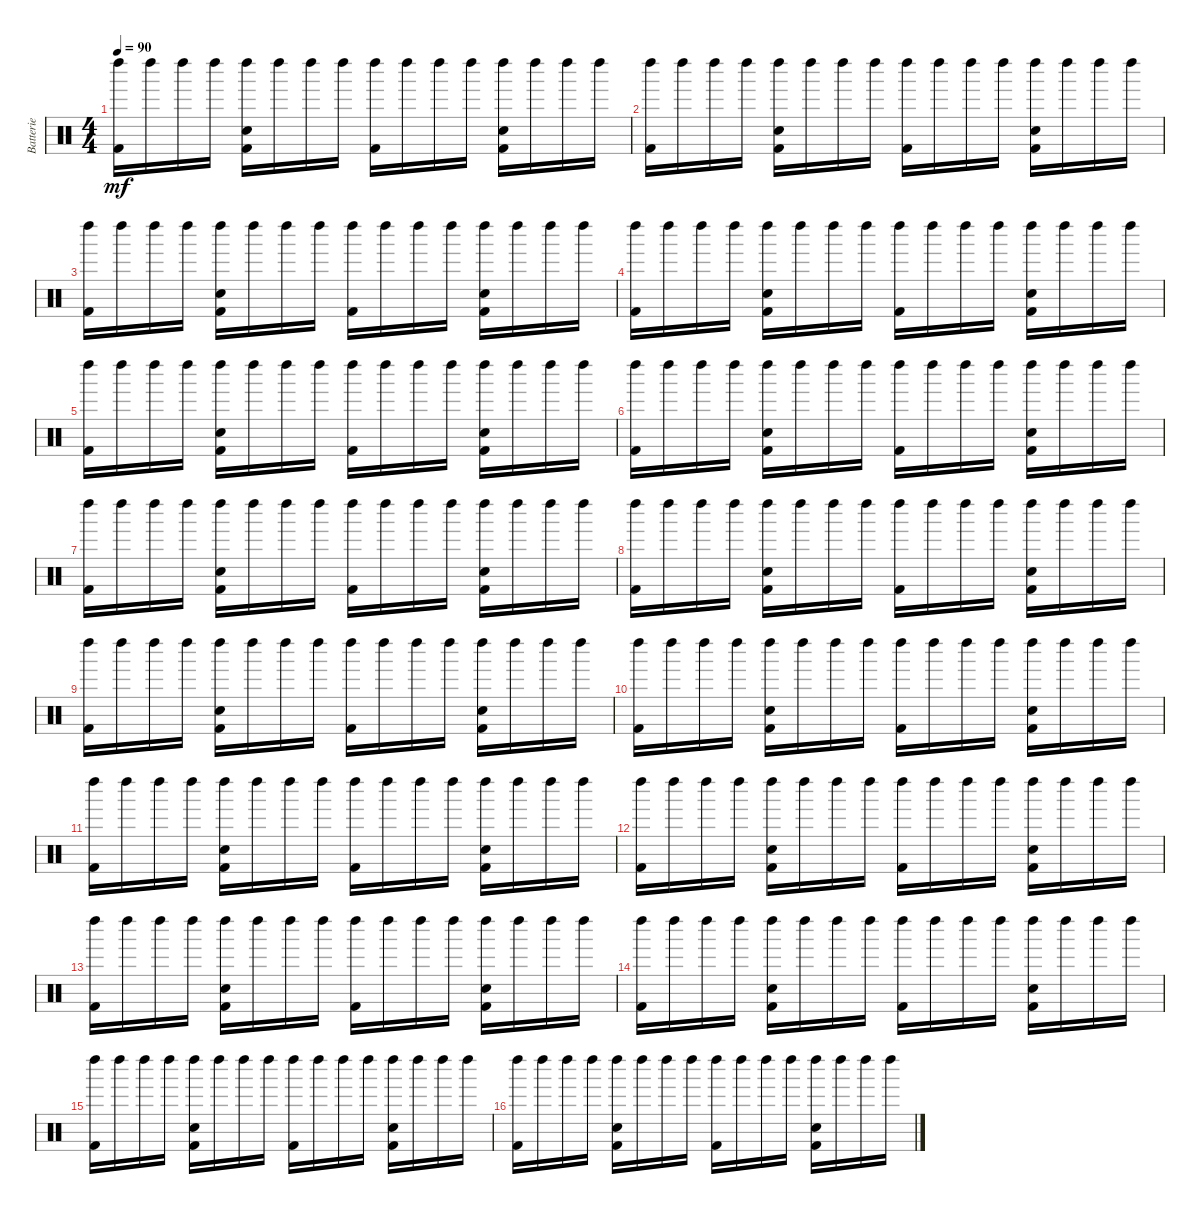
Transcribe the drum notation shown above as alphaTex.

\track ("Batterie" "Batterie") {instrument percussion}
\staff {score}
\articulation defaults
\ts (4 4)
\tempo 90
\clef neutral
\ks c
("Left Maraca (hit)" "Kick (hit) 2").16{dy mf} "Left Maraca (hit)".16 "Left Maraca (hit)".16 "Left Maraca (hit)".16 ("Left Maraca (hit)" "Snare (hit) 2" "Kick (hit) 2").16 "Left Maraca (hit)".16 "Left Maraca (hit)".16 "Left Maraca (hit)".16 ("Left Maraca (hit)" "Kick (hit) 2").16 "Left Maraca (hit)".16 "Left Maraca (hit)".16 "Left Maraca (hit)".16 ("Left Maraca (hit)" "Snare (hit) 2" "Kick (hit) 2").16 "Left Maraca (hit)".16 "Left Maraca (hit)".16 "Left Maraca (hit)".16 |
("Left Maraca (hit)" "Kick (hit) 2").16 "Left Maraca (hit)".16 "Left Maraca (hit)".16 "Left Maraca (hit)".16 ("Left Maraca (hit)" "Snare (hit) 2" "Kick (hit) 2").16 "Left Maraca (hit)".16 "Left Maraca (hit)".16 "Left Maraca (hit)".16 ("Left Maraca (hit)" "Kick (hit) 2").16 "Left Maraca (hit)".16 "Left Maraca (hit)".16 "Left Maraca (hit)".16 ("Left Maraca (hit)" "Snare (hit) 2" "Kick (hit) 2").16 "Left Maraca (hit)".16 "Left Maraca (hit)".16 "Left Maraca (hit)".16 |
("Left Maraca (hit)" "Kick (hit) 2").16 "Left Maraca (hit)".16 "Left Maraca (hit)".16 "Left Maraca (hit)".16 ("Left Maraca (hit)" "Snare (hit) 2" "Kick (hit) 2").16 "Left Maraca (hit)".16 "Left Maraca (hit)".16 "Left Maraca (hit)".16 ("Left Maraca (hit)" "Kick (hit) 2").16 "Left Maraca (hit)".16 "Left Maraca (hit)".16 "Left Maraca (hit)".16 ("Left Maraca (hit)" "Snare (hit) 2" "Kick (hit) 2").16 "Left Maraca (hit)".16 "Left Maraca (hit)".16 "Left Maraca (hit)".16 |
("Left Maraca (hit)" "Kick (hit) 2").16 "Left Maraca (hit)".16 "Left Maraca (hit)".16 "Left Maraca (hit)".16 ("Left Maraca (hit)" "Snare (hit) 2" "Kick (hit) 2").16 "Left Maraca (hit)".16 "Left Maraca (hit)".16 "Left Maraca (hit)".16 ("Left Maraca (hit)" "Kick (hit) 2").16 "Left Maraca (hit)".16 "Left Maraca (hit)".16 "Left Maraca (hit)".16 ("Left Maraca (hit)" "Snare (hit) 2" "Kick (hit) 2").16 "Left Maraca (hit)".16 "Left Maraca (hit)".16 "Left Maraca (hit)".16 |
("Left Maraca (hit)" "Kick (hit) 2").16 "Left Maraca (hit)".16 "Left Maraca (hit)".16 "Left Maraca (hit)".16 ("Left Maraca (hit)" "Snare (hit) 2" "Kick (hit) 2").16 "Left Maraca (hit)".16 "Left Maraca (hit)".16 "Left Maraca (hit)".16 ("Left Maraca (hit)" "Kick (hit) 2").16 "Left Maraca (hit)".16 "Left Maraca (hit)".16 "Left Maraca (hit)".16 ("Left Maraca (hit)" "Snare (hit) 2" "Kick (hit) 2").16 "Left Maraca (hit)".16 "Left Maraca (hit)".16 "Left Maraca (hit)".16 |
("Left Maraca (hit)" "Kick (hit) 2").16 "Left Maraca (hit)".16 "Left Maraca (hit)".16 "Left Maraca (hit)".16 ("Left Maraca (hit)" "Snare (hit) 2" "Kick (hit) 2").16 "Left Maraca (hit)".16 "Left Maraca (hit)".16 "Left Maraca (hit)".16 ("Left Maraca (hit)" "Kick (hit) 2").16 "Left Maraca (hit)".16 "Left Maraca (hit)".16 "Left Maraca (hit)".16 ("Left Maraca (hit)" "Snare (hit) 2" "Kick (hit) 2").16 "Left Maraca (hit)".16 "Left Maraca (hit)".16 "Left Maraca (hit)".16 |
("Left Maraca (hit)" "Kick (hit) 2").16 "Left Maraca (hit)".16 "Left Maraca (hit)".16 "Left Maraca (hit)".16 ("Left Maraca (hit)" "Snare (hit) 2" "Kick (hit) 2").16 "Left Maraca (hit)".16 "Left Maraca (hit)".16 "Left Maraca (hit)".16 ("Left Maraca (hit)" "Kick (hit) 2").16 "Left Maraca (hit)".16 "Left Maraca (hit)".16 "Left Maraca (hit)".16 ("Left Maraca (hit)" "Snare (hit) 2" "Kick (hit) 2").16 "Left Maraca (hit)".16 "Left Maraca (hit)".16 "Left Maraca (hit)".16 |
("Left Maraca (hit)" "Kick (hit) 2").16 "Left Maraca (hit)".16 "Left Maraca (hit)".16 "Left Maraca (hit)".16 ("Left Maraca (hit)" "Snare (hit) 2" "Kick (hit) 2").16 "Left Maraca (hit)".16 "Left Maraca (hit)".16 "Left Maraca (hit)".16 ("Left Maraca (hit)" "Kick (hit) 2").16 "Left Maraca (hit)".16 "Left Maraca (hit)".16 "Left Maraca (hit)".16 ("Left Maraca (hit)" "Snare (hit) 2" "Kick (hit) 2").16 "Left Maraca (hit)".16 "Left Maraca (hit)".16 "Left Maraca (hit)".16 |
("Left Maraca (hit)" "Kick (hit) 2").16 "Left Maraca (hit)".16 "Left Maraca (hit)".16 "Left Maraca (hit)".16 ("Left Maraca (hit)" "Snare (hit) 2" "Kick (hit) 2").16 "Left Maraca (hit)".16 "Left Maraca (hit)".16 "Left Maraca (hit)".16 ("Left Maraca (hit)" "Kick (hit) 2").16 "Left Maraca (hit)".16 "Left Maraca (hit)".16 "Left Maraca (hit)".16 ("Left Maraca (hit)" "Snare (hit) 2" "Kick (hit) 2").16 "Left Maraca (hit)".16 "Left Maraca (hit)".16 "Left Maraca (hit)".16 |
("Left Maraca (hit)" "Kick (hit) 2").16 "Left Maraca (hit)".16 "Left Maraca (hit)".16 "Left Maraca (hit)".16 ("Left Maraca (hit)" "Snare (hit) 2" "Kick (hit) 2").16 "Left Maraca (hit)".16 "Left Maraca (hit)".16 "Left Maraca (hit)".16 ("Left Maraca (hit)" "Kick (hit) 2").16 "Left Maraca (hit)".16 "Left Maraca (hit)".16 "Left Maraca (hit)".16 ("Left Maraca (hit)" "Snare (hit) 2" "Kick (hit) 2").16 "Left Maraca (hit)".16 "Left Maraca (hit)".16 "Left Maraca (hit)".16 |
("Left Maraca (hit)" "Kick (hit) 2").16 "Left Maraca (hit)".16 "Left Maraca (hit)".16 "Left Maraca (hit)".16 ("Left Maraca (hit)" "Snare (hit) 2" "Kick (hit) 2").16 "Left Maraca (hit)".16 "Left Maraca (hit)".16 "Left Maraca (hit)".16 ("Left Maraca (hit)" "Kick (hit) 2").16 "Left Maraca (hit)".16 "Left Maraca (hit)".16 "Left Maraca (hit)".16 ("Left Maraca (hit)" "Snare (hit) 2" "Kick (hit) 2").16 "Left Maraca (hit)".16 "Left Maraca (hit)".16 "Left Maraca (hit)".16 |
("Left Maraca (hit)" "Kick (hit) 2").16 "Left Maraca (hit)".16 "Left Maraca (hit)".16 "Left Maraca (hit)".16 ("Left Maraca (hit)" "Snare (hit) 2" "Kick (hit) 2").16 "Left Maraca (hit)".16 "Left Maraca (hit)".16 "Left Maraca (hit)".16 ("Left Maraca (hit)" "Kick (hit) 2").16 "Left Maraca (hit)".16 "Left Maraca (hit)".16 "Left Maraca (hit)".16 ("Left Maraca (hit)" "Snare (hit) 2" "Kick (hit) 2").16 "Left Maraca (hit)".16 "Left Maraca (hit)".16 "Left Maraca (hit)".16 |
("Left Maraca (hit)" "Kick (hit) 2").16 "Left Maraca (hit)".16 "Left Maraca (hit)".16 "Left Maraca (hit)".16 ("Left Maraca (hit)" "Snare (hit) 2" "Kick (hit) 2").16 "Left Maraca (hit)".16 "Left Maraca (hit)".16 "Left Maraca (hit)".16 ("Left Maraca (hit)" "Kick (hit) 2").16 "Left Maraca (hit)".16 "Left Maraca (hit)".16 "Left Maraca (hit)".16 ("Left Maraca (hit)" "Snare (hit) 2" "Kick (hit) 2").16 "Left Maraca (hit)".16 "Left Maraca (hit)".16 "Left Maraca (hit)".16 |
("Left Maraca (hit)" "Kick (hit) 2").16 "Left Maraca (hit)".16 "Left Maraca (hit)".16 "Left Maraca (hit)".16 ("Left Maraca (hit)" "Snare (hit) 2" "Kick (hit) 2").16 "Left Maraca (hit)".16 "Left Maraca (hit)".16 "Left Maraca (hit)".16 ("Left Maraca (hit)" "Kick (hit) 2").16 "Left Maraca (hit)".16 "Left Maraca (hit)".16 "Left Maraca (hit)".16 ("Left Maraca (hit)" "Snare (hit) 2" "Kick (hit) 2").16 "Left Maraca (hit)".16 "Left Maraca (hit)".16 "Left Maraca (hit)".16 |
("Left Maraca (hit)" "Kick (hit) 2").16 "Left Maraca (hit)".16 "Left Maraca (hit)".16 "Left Maraca (hit)".16 ("Left Maraca (hit)" "Snare (hit) 2" "Kick (hit) 2").16 "Left Maraca (hit)".16 "Left Maraca (hit)".16 "Left Maraca (hit)".16 ("Left Maraca (hit)" "Kick (hit) 2").16 "Left Maraca (hit)".16 "Left Maraca (hit)".16 "Left Maraca (hit)".16 ("Left Maraca (hit)" "Snare (hit) 2" "Kick (hit) 2").16 "Left Maraca (hit)".16 "Left Maraca (hit)".16 "Left Maraca (hit)".16 |
("Left Maraca (hit)" "Kick (hit) 2").16 "Left Maraca (hit)".16 "Left Maraca (hit)".16 "Left Maraca (hit)".16 ("Left Maraca (hit)" "Snare (hit) 2" "Kick (hit) 2").16 "Left Maraca (hit)".16 "Left Maraca (hit)".16 "Left Maraca (hit)".16 ("Left Maraca (hit)" "Kick (hit) 2").16 "Left Maraca (hit)".16 "Left Maraca (hit)".16 "Left Maraca (hit)".16 ("Left Maraca (hit)" "Snare (hit) 2" "Kick (hit) 2").16 "Left Maraca (hit)".16 "Left Maraca (hit)".16 "Left Maraca (hit)".16
